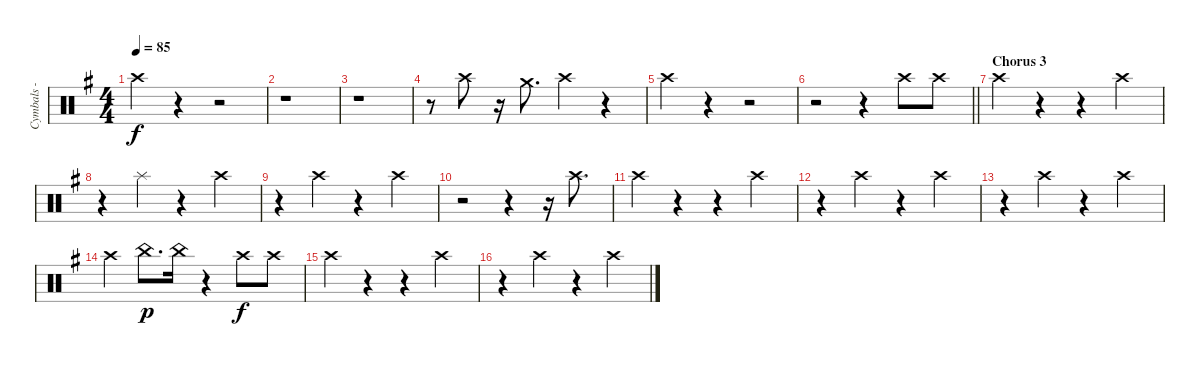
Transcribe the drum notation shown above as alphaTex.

\track ("Cymbals - crash" "Cymbals - ") {instrument percussion}
\staff {score}
\articulation defaults
\ts (4 4)
\tempo 85
\clef neutral
\ks g "Crash high (hit)".4{dy f}
r.4 r.2 |
r.1 |
r.1 |
r.8 "Crash high (hit)".8 r.16 "Crash medium (hit)".8{d} "Crash high (hit)".4 r.4 |
"Crash high (hit)".4 r.4 r.2 |
\barLineRight lightlight
r.2 r.4 "Crash high (hit)".8 "Crash high (hit)".8 |
\section ("" "Chorus 3")
"Crash high (hit)".4 r.4 r.4 "Crash high (hit)".4 |
r.4 "Splash (hit)".4 r.4 "Crash high (hit)".4 |
r.4 "Crash high (hit)".4 r.4 "Crash high (hit)".4 |
r.2 r.4 r.16 "Crash high (hit)".8{d} |
"Crash high (hit)".4 r.4 r.4 "Crash high (hit)".4 |
r.4 "Crash high (hit)".4 r.4 "Crash high (hit)".4 |
r.4 "Crash high (hit)".4 r.4 "Crash high (hit)".4 |
"Crash high (hit)".4 "China (hit)".8{d dy p} "China (hit)".16 r.4 "Crash high (hit)".8{dy f} "Crash high (hit)".8 |
"Crash high (hit)".4 r.4 r.4 "Crash high (hit)".4 |
r.4 "Crash high (hit)".4 r.4 "Crash high (hit)".4
